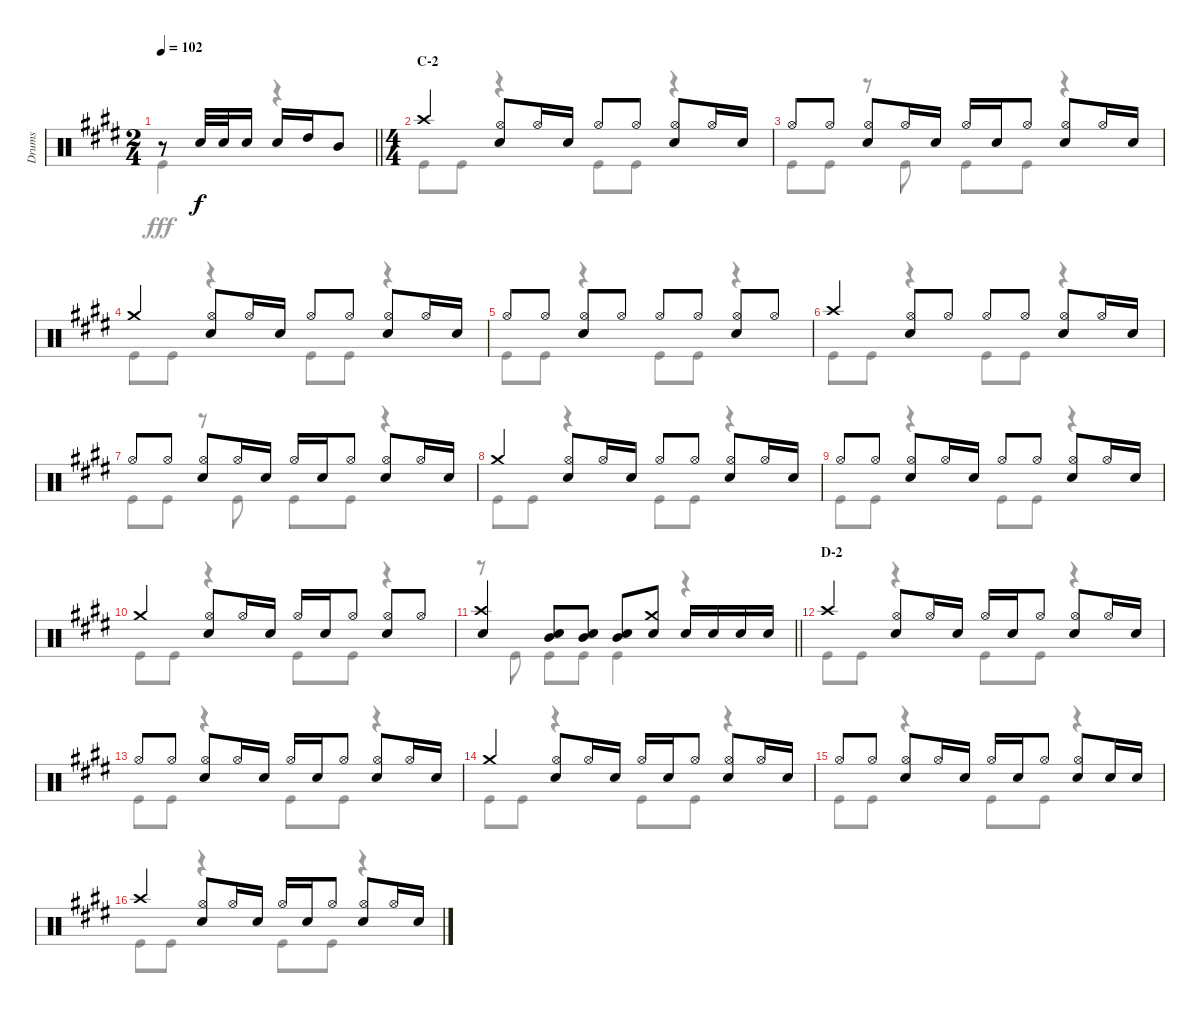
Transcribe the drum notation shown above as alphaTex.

\track ("Drums" "Drums") {instrument percussion}
\staff {score}
\articulation defaults
\voice
\ts (2 4)
\tempo 102
\clef neutral
\barLineRight lightlight
\ks e
r.8{dy f} "Snare (hit) 2".32 "Snare (hit) 2".32 "Snare (hit) 2".16 "Snare (hit) 2".16 "High Tom (hit)".16 "Mid Tom (hit)".8 |
\ts (4 4)
\section ("" "C-2")
"Crash high (hit)".4 ("Hi-Hat (open)" "Snare (hit) 2").8 "Hi-Hat (open)".16 "Snare (hit) 2".16 "Hi-Hat (open)".8 "Hi-Hat (open)".8 ("Hi-Hat (open)" "Snare (hit) 2").8 "Hi-Hat (open)".16 "Snare (hit) 2".16 |
"Hi-Hat (open)".8 "Hi-Hat (open)".8 ("Hi-Hat (open)" "Snare (hit) 2").8 "Hi-Hat (open)".16 "Snare (hit) 2".16 "Hi-Hat (open)".16 "Snare (hit) 2".16 "Hi-Hat (open)".8 ("Hi-Hat (open)" "Snare (hit) 2").8 "Hi-Hat (open)".16 "Snare (hit) 2".16 |
"Crash medium (hit)".4 ("Hi-Hat (open)" "Snare (hit) 2").8 "Hi-Hat (open)".16 "Snare (hit) 2".16 "Hi-Hat (open)".8 "Hi-Hat (open)".8 ("Hi-Hat (open)" "Snare (hit) 2").8 "Hi-Hat (open)".16 "Snare (hit) 2".16 |
"Hi-Hat (open)".8 "Hi-Hat (open)".8 ("Hi-Hat (open)" "Snare (hit) 2").8 "Hi-Hat (open)".8 "Hi-Hat (open)".8 "Hi-Hat (open)".8 ("Hi-Hat (open)" "Snare (hit) 2").8 "Hi-Hat (open)".8 |
"Crash high (hit)".4 ("Hi-Hat (open)" "Snare (hit) 2").8 "Hi-Hat (open)".8 "Hi-Hat (open)".8 "Hi-Hat (open)".8 ("Hi-Hat (open)" "Snare (hit) 2").8 "Hi-Hat (open)".16 "Snare (hit) 2".16 |
"Hi-Hat (open)".8 "Hi-Hat (open)".8 ("Hi-Hat (open)" "Snare (hit) 2").8 "Hi-Hat (open)".16 "Snare (hit) 2".16 "Hi-Hat (open)".16 "Snare (hit) 2".16 "Hi-Hat (open)".8 ("Hi-Hat (open)" "Snare (hit) 2").8 "Hi-Hat (open)".16 "Snare (hit) 2".16 |
"Crash medium (hit)".4 ("Hi-Hat (open)" "Snare (hit) 2").8 "Hi-Hat (open)".16 "Snare (hit) 2".16 "Hi-Hat (open)".8 "Hi-Hat (open)".8 ("Hi-Hat (open)" "Snare (hit) 2").8 "Hi-Hat (open)".16 "Snare (hit) 2".16 |
"Hi-Hat (open)".8 "Hi-Hat (open)".8 ("Hi-Hat (open)" "Snare (hit) 2").8 "Hi-Hat (open)".16 "Snare (hit) 2".16 "Hi-Hat (open)".8 "Hi-Hat (open)".8 ("Hi-Hat (open)" "Snare (hit) 2").8 "Hi-Hat (open)".16 "Snare (hit) 2".16 |
"Crash medium (hit)".4 ("Hi-Hat (open)" "Snare (hit) 2").8 "Hi-Hat (open)".16 "Snare (hit) 2".16 "Hi-Hat (open)".16 "Snare (hit) 2".16 "Hi-Hat (open)".8 ("Hi-Hat (open)" "Snare (hit) 2").8 "Hi-Hat (open)".8 |
\barLineRight lightlight
("Crash high (hit)" "Snare (hit) 2").4 ("Mid Tom (hit)" "Snare (hit) 2").8 ("Mid Tom (hit)" "Snare (hit) 2").8 ("Mid Tom (hit)" "Snare (hit) 2").8 ("Crash medium (hit)" "Snare (hit) 2").8 "Snare (hit) 2".16 "Snare (hit) 2".16 "Snare (hit) 2".16 "Snare (hit) 2".16 |
\section ("" "D-2")
"Crash high (hit)".4 ("Hi-Hat (open)" "Snare (hit) 2").8 "Hi-Hat (open)".16 "Snare (hit) 2".16 "Hi-Hat (open)".16 "Snare (hit) 2".16 "Hi-Hat (open)".8 ("Hi-Hat (open)" "Snare (hit) 2").8 "Hi-Hat (open)".16 "Snare (hit) 2".16 |
"Hi-Hat (open)".8 "Hi-Hat (open)".8 ("Hi-Hat (open)" "Snare (hit) 2").8 "Hi-Hat (open)".16 "Snare (hit) 2".16 "Hi-Hat (open)".16 "Snare (hit) 2".16 "Hi-Hat (open)".8 ("Hi-Hat (open)" "Snare (hit) 2").8 "Hi-Hat (open)".16 "Snare (hit) 2".16 |
"Crash medium (hit)".4 ("Hi-Hat (open)" "Snare (hit) 2").8 "Hi-Hat (open)".16 "Snare (hit) 2".16 "Hi-Hat (open)".16 "Snare (hit) 2".16 "Hi-Hat (open)".8 ("Hi-Hat (open)" "Snare (hit) 2").8 "Hi-Hat (open)".16 "Snare (hit) 2".16 |
"Hi-Hat (open)".8 "Hi-Hat (open)".8 ("Hi-Hat (open)" "Snare (hit) 2").8 "Hi-Hat (open)".16 "Snare (hit) 2".16 "Hi-Hat (open)".16 "Snare (hit) 2".16 "Hi-Hat (open)".8 ("Hi-Hat (open)" "Snare (hit) 2").8 "Snare (hit) 2".16 "Snare (hit) 2".16 |
"Crash high (hit)".4 ("Hi-Hat (open)" "Snare (hit) 2").8 "Hi-Hat (open)".16 "Snare (hit) 2".16 "Hi-Hat (open)".16 "Snare (hit) 2".16 "Hi-Hat (open)".8 ("Hi-Hat (open)" "Snare (hit) 2").8 "Hi-Hat (open)".16 "Snare (hit) 2".16
\voice
\clef neutral
\ottava regular
\simile none
\barLineRight lightlight
\ks e "Kick (hit)".4{dy fff}
r.4 |
"Kick (hit)".8 "Kick (hit)".8 r.4 "Kick (hit)".8 "Kick (hit)".8 r.4 |
"Kick (hit)".8 "Kick (hit)".8 r.8 "Kick (hit)".8 "Kick (hit)".8 "Kick (hit)".8 r.4 |
"Kick (hit)".8 "Kick (hit)".8 r.4 "Kick (hit)".8 "Kick (hit)".8 r.4 |
"Kick (hit)".8 "Kick (hit)".8 r.4 "Kick (hit)".8 "Kick (hit)".8 r.4 |
"Kick (hit)".8 "Kick (hit)".8 r.4 "Kick (hit)".8 "Kick (hit)".8 r.4 |
"Kick (hit)".8 "Kick (hit)".8 r.8 "Kick (hit)".8 "Kick (hit)".8 "Kick (hit)".8 r.4 |
"Kick (hit)".8 "Kick (hit)".8 r.4 "Kick (hit)".8 "Kick (hit)".8 r.4 |
"Kick (hit)".8 "Kick (hit)".8 r.4 "Kick (hit)".8 "Kick (hit)".8 r.4 |
"Kick (hit)".8 "Kick (hit)".8 r.4 "Kick (hit)".8 "Kick (hit)".8 r.4 |
\barLineRight lightlight
r.8 "Kick (hit)".8 "Kick (hit)".8 "Kick (hit)".8 "Kick (hit)".4 r.4 |
"Kick (hit)".8 "Kick (hit)".8 r.4 "Kick (hit)".8 "Kick (hit)".8 r.4 |
"Kick (hit)".8 "Kick (hit)".8 r.4 "Kick (hit)".8 "Kick (hit)".8 r.4 |
"Kick (hit)".8 "Kick (hit)".8 r.4 "Kick (hit)".8 "Kick (hit)".8 r.4 |
"Kick (hit)".8 "Kick (hit)".8 r.4 "Kick (hit)".8 "Kick (hit)".8 r.4 |
"Kick (hit)".8 "Kick (hit)".8 r.4 "Kick (hit)".8 "Kick (hit)".8 r.4
